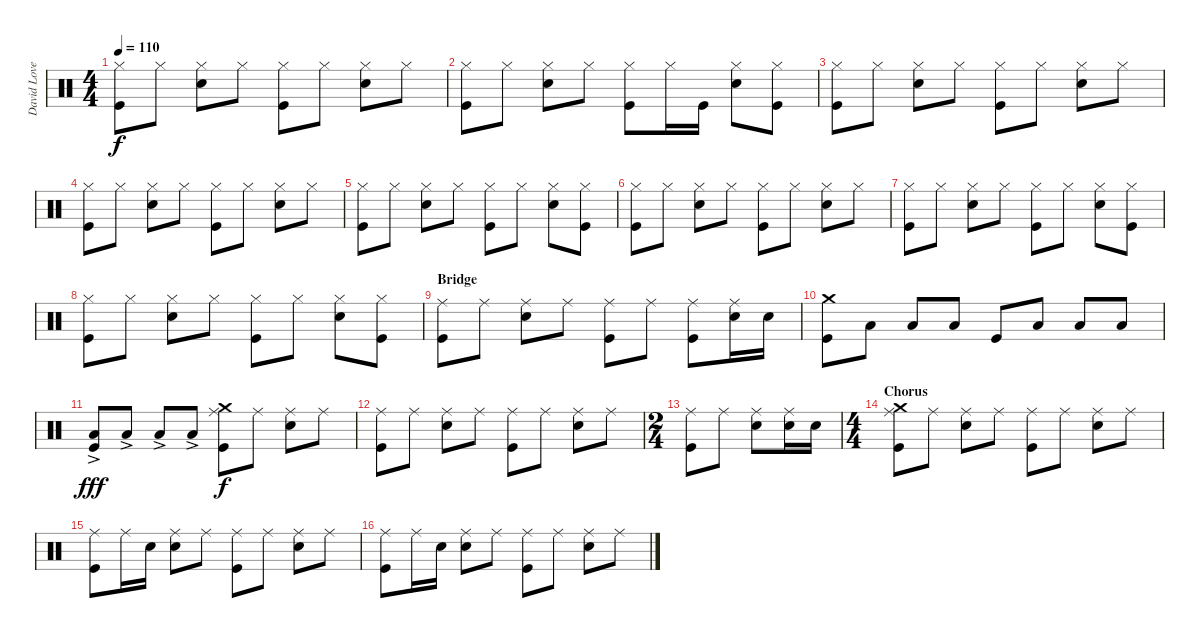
\track ("David Lovering" "David Love") {instrument percussion}
\staff {score}
\articulation defaults
\ts (4 4)
\tempo 110
\clef neutral
\ks c
("Hi-Hat (closed)" "Kick (hit)").8{dy f} "Hi-Hat (closed)".8 ("Hi-Hat (closed)" "Snare (hit) 2").8 "Hi-Hat (closed)".8 ("Hi-Hat (closed)" "Kick (hit)").8 "Hi-Hat (closed)".8 ("Hi-Hat (closed)" "Snare (hit) 2").8 "Hi-Hat (closed)".8 |
("Hi-Hat (closed)" "Kick (hit)").8 "Hi-Hat (closed)".8 ("Hi-Hat (closed)" "Snare (hit) 2").8 "Hi-Hat (closed)".8 ("Hi-Hat (closed)" "Kick (hit)").8 "Hi-Hat (closed)".16 "Kick (hit)".16 ("Hi-Hat (closed)" "Snare (hit) 2").8 ("Hi-Hat (closed)" "Kick (hit)").8 |
("Hi-Hat (closed)" "Kick (hit)").8 "Hi-Hat (closed)".8 ("Hi-Hat (closed)" "Snare (hit) 2").8 "Hi-Hat (closed)".8 ("Hi-Hat (closed)" "Kick (hit)").8 "Hi-Hat (closed)".8 ("Hi-Hat (closed)" "Snare (hit) 2").8 "Hi-Hat (closed)".8 |
("Hi-Hat (closed)" "Kick (hit)").8 "Hi-Hat (closed)".8 ("Hi-Hat (closed)" "Snare (hit) 2").8 "Hi-Hat (closed)".8 ("Hi-Hat (closed)" "Kick (hit)").8 "Hi-Hat (closed)".8 ("Hi-Hat (closed)" "Snare (hit) 2").8 "Hi-Hat (closed)".8 |
("Hi-Hat (closed)" "Kick (hit)").8 "Hi-Hat (closed)".8 ("Hi-Hat (closed)" "Snare (hit) 2").8 "Hi-Hat (closed)".8 ("Hi-Hat (closed)" "Kick (hit)").8 "Hi-Hat (closed)".8 ("Hi-Hat (closed)" "Snare (hit) 2").8 ("Hi-Hat (closed)" "Kick (hit)").8 |
("Hi-Hat (closed)" "Kick (hit)").8 "Hi-Hat (closed)".8 ("Hi-Hat (closed)" "Snare (hit) 2").8 "Hi-Hat (closed)".8 ("Hi-Hat (closed)" "Kick (hit)").8 "Hi-Hat (closed)".8 ("Hi-Hat (closed)" "Snare (hit) 2").8 "Hi-Hat (closed)".8 |
("Hi-Hat (closed)" "Kick (hit)").8 "Hi-Hat (closed)".8 ("Hi-Hat (closed)" "Snare (hit) 2").8 "Hi-Hat (closed)".8 ("Hi-Hat (closed)" "Kick (hit)").8 "Hi-Hat (closed)".8 ("Hi-Hat (closed)" "Snare (hit) 2").8 ("Hi-Hat (closed)" "Kick (hit)").8 |
("Hi-Hat (closed)" "Kick (hit)").8 "Hi-Hat (closed)".8 ("Hi-Hat (closed)" "Snare (hit) 2").8 "Hi-Hat (closed)".8 ("Hi-Hat (closed)" "Kick (hit)").8 "Hi-Hat (closed)".8 ("Hi-Hat (closed)" "Snare (hit) 2").8 ("Hi-Hat (closed)" "Kick (hit)").8 |
\section ("" "Bridge")
("Ride (middle)" "Kick (hit)").8 "Ride (middle)".8 ("Ride (middle)" "Snare (hit) 2").8 "Ride (middle)".8 ("Ride (middle)" "Kick (hit)").8 "Ride (middle)".8 ("Ride (middle)" "Kick (hit)").8 ("Ride (middle)" "Snare (hit) 2").16 "Snare (hit) 2".16 |
("Crash medium (hit)" "Kick (hit)").8 "Low Floor Tom (hit)".8 "Low Floor Tom (hit)".8 "Low Floor Tom (hit)".8 "Kick (hit)".8 "Low Floor Tom (hit)".8 "Low Floor Tom (hit)".8 "Low Floor Tom (hit)".8 |
("Low Floor Tom (hit)"{ac} "Kick (hit)").8{dy fff} "Low Floor Tom (hit)"{ac}.8 "Low Floor Tom (hit)"{ac}.8 "Low Floor Tom (hit)"{ac}.8 ("Ride (middle)" "Crash medium (hit)" "Kick (hit)").8{dy f} "Ride (middle)".8 ("Ride (middle)" "Snare (hit) 2").8 "Ride (middle)".8 |
("Ride (middle)" "Kick (hit)").8 "Ride (middle)".8 ("Ride (middle)" "Snare (hit) 2").8 "Ride (middle)".8 ("Ride (middle)" "Kick (hit)").8 "Ride (middle)".8 ("Ride (middle)" "Snare (hit) 2").8 "Ride (middle)".8 |
\ts (2 4)
("Ride (middle)" "Kick (hit)").8 "Ride (middle)".8 ("Ride (middle)" "Snare (hit) 2").8 ("Ride (middle)" "Snare (hit) 2").16 "Snare (hit) 2".16 |
\ts (4 4)
\section ("" "Chorus")
("Ride (middle)" "Crash medium (hit)" "Kick (hit)").8 "Ride (middle)".8 ("Ride (middle)" "Snare (hit) 2").8 "Ride (middle)".8 ("Ride (middle)" "Kick (hit)").8 "Ride (middle)".8 ("Ride (middle)" "Snare (hit) 2").8 "Ride (middle)".8 |
("Ride (middle)" "Kick (hit)").8 "Ride (middle)".16 "Snare (hit) 2".16 ("Ride (middle)" "Snare (hit) 2").8 "Ride (middle)".8 ("Ride (middle)" "Kick (hit)").8 "Ride (middle)".8 ("Ride (middle)" "Snare (hit) 2").8 "Ride (middle)".8 |
("Ride (middle)" "Kick (hit)").8 "Ride (middle)".16 "Snare (hit) 2".16 ("Ride (middle)" "Snare (hit) 2").8 "Ride (middle)".8 ("Ride (middle)" "Kick (hit)").8 "Ride (middle)".8 ("Ride (middle)" "Snare (hit) 2").8 "Ride (middle)".8
